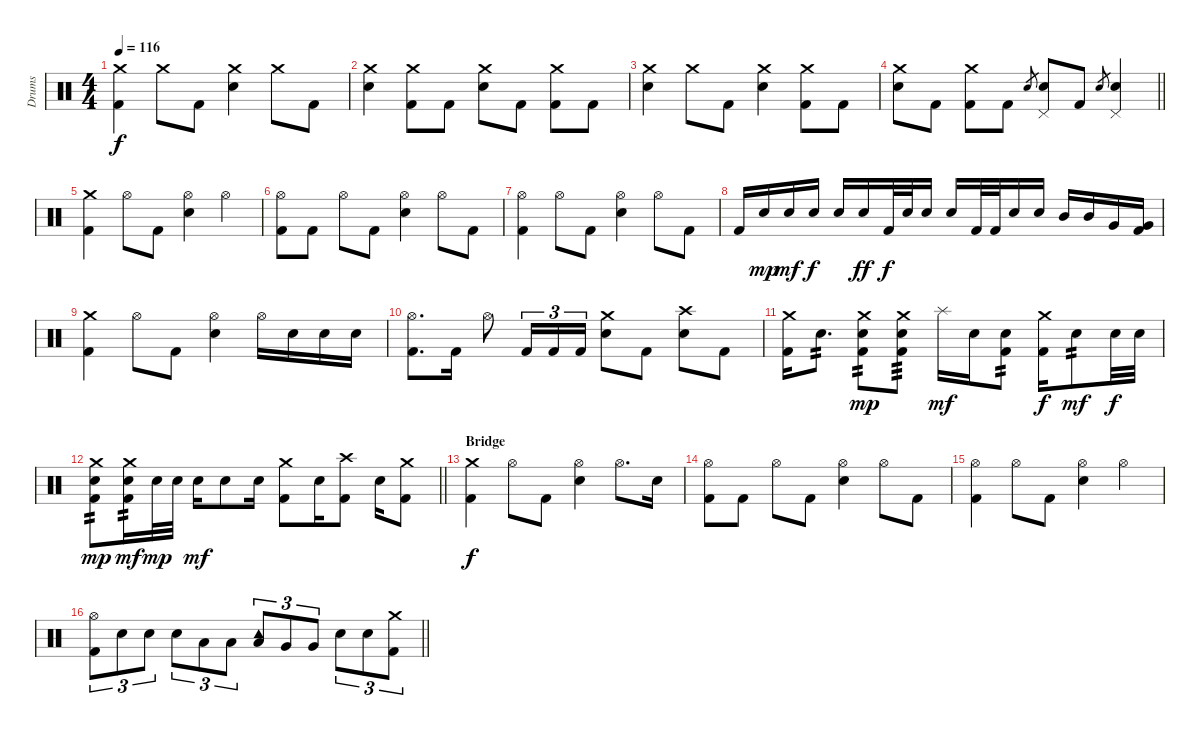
\track ("Drums" "Drums") {instrument percussion}
\staff {score}
\articulation defaults
\ts (4 4)
\tempo 116
\clef neutral
\ks c
("Crash medium (hit)" "Kick (hit) 2").4{dy f} "Crash medium (hit)".8 "Kick (hit) 2".8 ("Crash medium (hit)" "Electric Snare (hit)").4 "Crash medium (hit)".8 "Kick (hit) 2".8 |
("Crash medium (hit)" "Electric Snare (hit)").4 ("Crash medium (hit)" "Kick (hit) 2").8 "Kick (hit) 2".8 ("Crash medium (hit)" "Electric Snare (hit)").8 "Kick (hit) 2".8 ("Crash medium (hit)" "Kick (hit) 2").8 "Kick (hit) 2".8 |
("Crash medium (hit)" "Electric Snare (hit)").4 "Crash medium (hit)".8 "Kick (hit) 2".8 ("Crash medium (hit)" "Electric Snare (hit)").4 ("Crash medium (hit)" "Kick (hit) 2").8 "Kick (hit) 2".8 |
\barLineRight lightlight
("Crash medium (hit)" "Electric Snare (hit)").8 "Kick (hit) 2".8 ("Crash medium (hit)" "Kick (hit) 2").8 "Kick (hit) 2".8 "Electric Snare (hit)".8{gr} ("Pedal Hi-Hat (hit)" "Electric Snare (hit)").8 "Kick (hit) 2".8 "Electric Snare (hit)".8{gr} ("Pedal Hi-Hat (hit)" "Electric Snare (hit)").4 |
("Crash medium (hit)" "Kick (hit) 2").4 "Hi-Hat (open)".8 "Kick (hit) 2".8 ("Hi-Hat (open)" "Electric Snare (hit)").4 "Hi-Hat (open)".4 |
("Hi-Hat (open)" "Kick (hit) 2").8 "Kick (hit) 2".8 "Hi-Hat (open)".8 "Kick (hit) 2".8 ("Hi-Hat (open)" "Electric Snare (hit)").4 "Hi-Hat (open)".8 "Kick (hit) 2".8 |
("Hi-Hat (open)" "Kick (hit) 2").4 "Hi-Hat (open)".8 "Kick (hit) 2".8 ("Hi-Hat (open)" "Electric Snare (hit)").4 "Hi-Hat (open)".8 "Kick (hit) 2".8 |
"Kick (hit) 2".16 "Electric Snare (hit)".16{dy mp} "Electric Snare (hit)".16{dy mf} "Electric Snare (hit)".16{dy f} "Electric Snare (hit)".16 "Electric Snare (hit)".16{dy ff} "Kick (hit) 2".32{dy f} "Electric Snare (hit)".32 "Electric Snare (hit)".16 "Electric Snare (hit)".16 "Kick (hit) 2".32 "Kick (hit) 2".32 "Electric Snare (hit)".16 "Electric Snare (hit)".16 "Mid Tom (hit)".16 "Mid Tom (hit)".16 "Very Low Tom (hit)".16 ("Very Low Tom (hit)" "Kick (hit) 2").16 |
("Crash medium (hit)" "Kick (hit) 2").4 "Hi-Hat (open)".8 "Kick (hit) 2".8 ("Hi-Hat (open)" "Electric Snare (hit)").4 "Hi-Hat (open)".16 "Electric Snare (hit)".16 "Electric Snare (hit)".16 "Electric Snare (hit)".16 |
("Hi-Hat (open)" "Kick (hit) 2").8{d} "Kick (hit) 2".16 "Hi-Hat (open)".8 "Kick (hit) 2".16{tu (3 2)} "Kick (hit) 2".16{tu (3 2)} "Kick (hit) 2".16{tu (3 2)} ("Crash medium (hit)" "Electric Snare (hit)").8 "Kick (hit) 2".8 ("Crash high (hit)" "Electric Snare (hit)").8 "Kick (hit) 2".8 |
("Crash medium (hit)" "Kick (hit) 2").16 "Electric Snare (hit)".8{d tp 2} ("Crash medium (hit)" "Electric Snare (hit)" "Kick (hit) 2").8{tp 2 dy mp} ("Crash medium (hit)" "Electric Snare (hit)" "Kick (hit) 2").8{tp 3} "Splash (hit)".16{dy mf} "Electric Snare (hit)".16 ("Electric Snare (hit)" "Kick (hit) 2").8{tp 2} ("Crash medium (hit)" "Kick (hit) 2").16{dy f} "Electric Snare (hit)".8{tp 2 dy mf} "Electric Snare (hit)".32{dy f} "Electric Snare (hit)".32 |
\barLineRight lightlight
("Crash medium (hit)" "Electric Snare (hit)" "Kick (hit) 2").8{tp 2 dy mp} ("Crash medium (hit)" "Electric Snare (hit)" "Kick (hit) 2").16{tp 2 dy mf} "Electric Snare (hit)".32{dy mp} "Electric Snare (hit)".32 "Electric Snare (hit)".16{dy mf} "Electric Snare (hit)".8 "Electric Snare (hit)".16 ("Crash medium (hit)" "Kick (hit) 2").8 "Electric Snare (hit)".16 ("Crash high (hit)" "Kick (hit) 2").8 "Electric Snare (hit)".16 ("Crash medium (hit)" "Kick (hit) 2").8 |
\section ("" "Bridge")
("Crash medium (hit)" "Kick (hit) 2").4{dy f} "Hi-Hat (open)".8 "Kick (hit) 2".8 ("Hi-Hat (open)" "Electric Snare (hit)").4 "Hi-Hat (open)".8{d} "Electric Snare (hit)".16 |
("Hi-Hat (open)" "Kick (hit) 2").8 "Kick (hit) 2".8 "Hi-Hat (open)".8 "Kick (hit) 2".8 ("Hi-Hat (open)" "Electric Snare (hit)").4 "Hi-Hat (open)".8 "Kick (hit) 2".8 |
("Hi-Hat (open)" "Kick (hit) 2").4 "Hi-Hat (open)".8 "Kick (hit) 2".8 ("Hi-Hat (open)" "Electric Snare (hit)").4 "Hi-Hat (open)".4 |
\barLineRight lightlight
("Hi-Hat (open)" "Kick (hit) 2").8{tu (3 2)} "Electric Snare (hit)".8{tu (3 2)} "Electric Snare (hit)".8{tu (3 2)} "Electric Snare (hit)".8{tu (3 2)} "Low Tom (hit)".8{tu (3 2)} "Low Tom (hit)".8{tu (3 2)} ("Tambourine (hit)" "Low Tom (hit)").8{tu (3 2)} "Very Low Tom (hit)".8{tu (3 2)} "Very Low Tom (hit)".8{tu (3 2)} "Electric Snare (hit)".8{tu (3 2)} "Electric Snare (hit)".8{tu (3 2)} ("Crash medium (hit)" "Kick (hit) 2").8{tu (3 2)}
